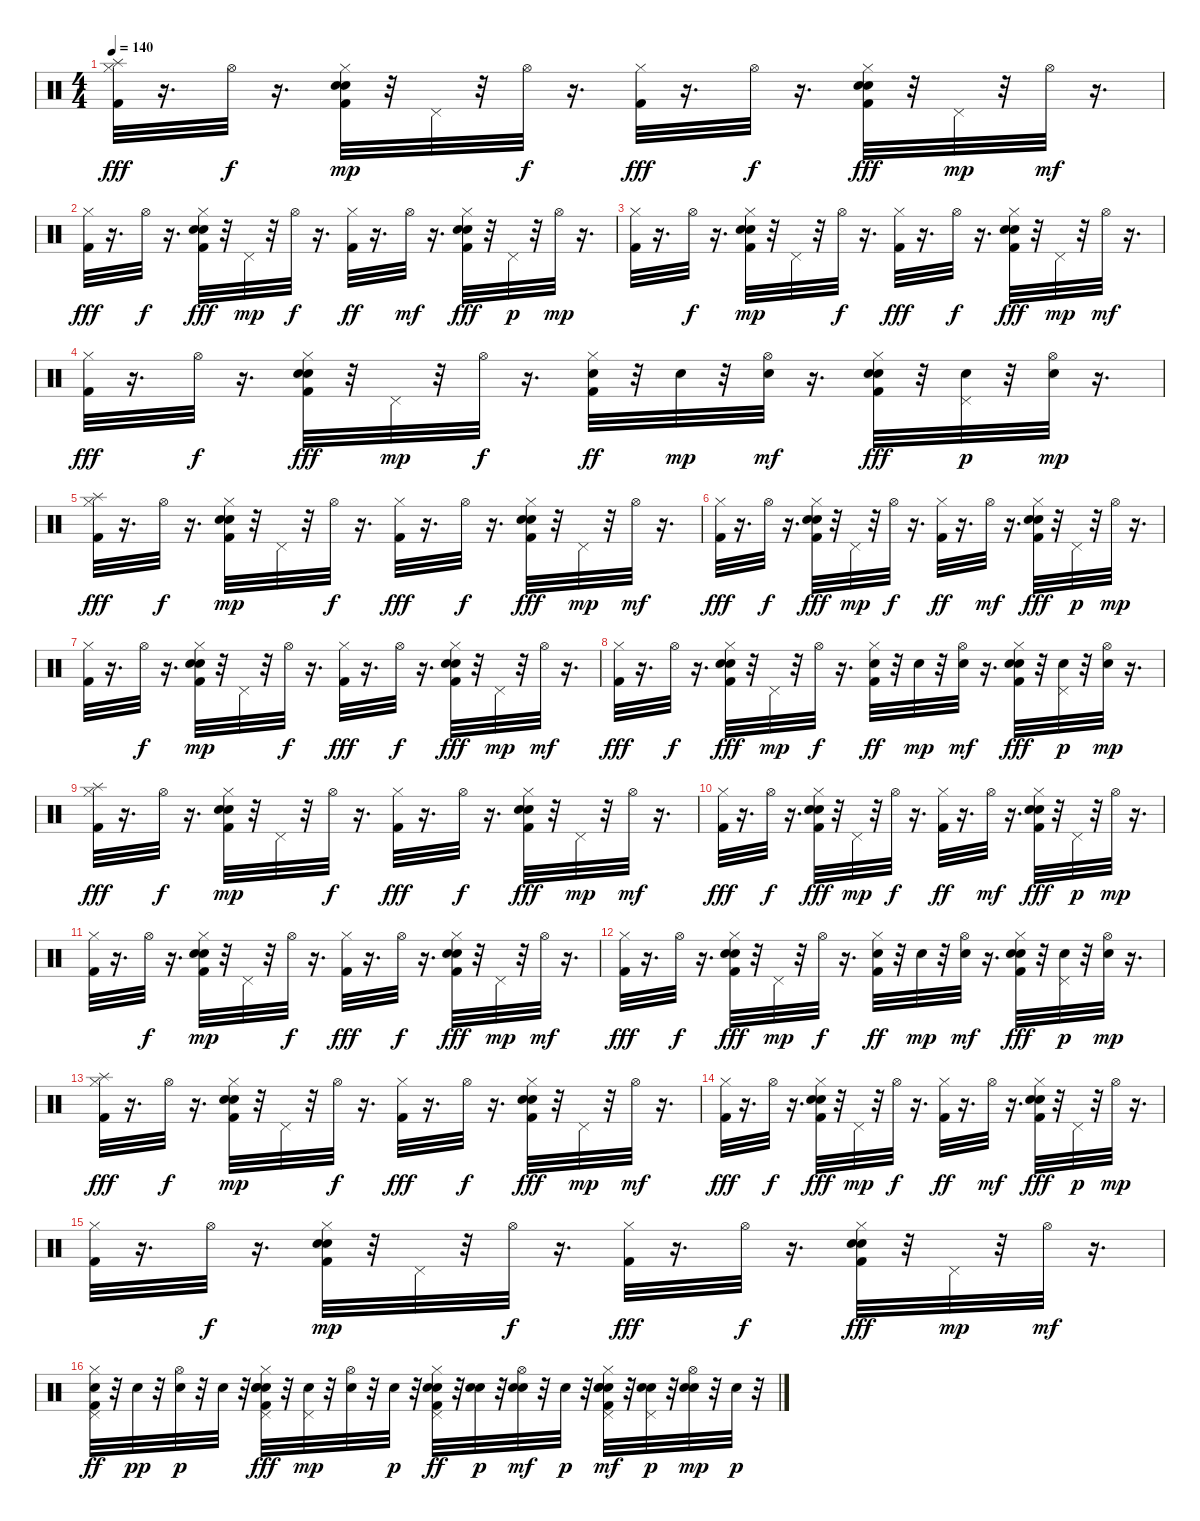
\track "" {instrument percussion}
\staff {score}
\articulation defaults
\ts (4 4)
\tempo 140
\clef neutral
\ks c
("Kick (hit) 2" "Hi-Hat (closed)" "Splash (hit)").32{dy fff} r.16{d} "Hi-Hat (open)".32{dy f} r.16{d} ("Kick (hit) 2" "Snare (hit) 2" "Hand Clap (hit)" "Hi-Hat (closed)").32{dy mp} r.32 "Pedal Hi-Hat (hit)".32 r.32 "Hi-Hat (open)".32{dy f} r.16{d} ("Kick (hit) 2" "Hi-Hat (closed)").32{dy fff} r.16{d} "Hi-Hat (open)".32{dy f} r.16{d} ("Kick (hit) 2" "Snare (hit) 2" "Hand Clap (hit)" "Hi-Hat (closed)").32{dy fff} r.32 "Pedal Hi-Hat (hit)".32{dy mp} r.32 "Hi-Hat (open)".32{dy mf} r.16{d} |
("Kick (hit) 2" "Hi-Hat (closed)").32{dy fff} r.16{d} "Hi-Hat (open)".32{dy f} r.16{d} ("Kick (hit) 2" "Snare (hit) 2" "Hand Clap (hit)" "Hi-Hat (closed)").32{dy fff} r.32 "Pedal Hi-Hat (hit)".32{dy mp} r.32 "Hi-Hat (open)".32{dy f} r.16{d} ("Kick (hit) 2" "Hi-Hat (closed)").32{dy ff} r.16{d} "Hi-Hat (open)".32{dy mf} r.16{d} ("Kick (hit) 2" "Snare (hit) 2" "Hand Clap (hit)" "Hi-Hat (closed)").32{dy fff} r.32 "Pedal Hi-Hat (hit)".32{dy p} r.32 "Hi-Hat (open)".32{dy mp} r.16{d} |
("Kick (hit) 2" "Hi-Hat (closed)").32 r.16{d} "Hi-Hat (open)".32{dy f} r.16{d} ("Kick (hit) 2" "Snare (hit) 2" "Hand Clap (hit)" "Hi-Hat (closed)").32{dy mp} r.32 "Pedal Hi-Hat (hit)".32 r.32 "Hi-Hat (open)".32{dy f} r.16{d} ("Kick (hit) 2" "Hi-Hat (closed)").32{dy fff} r.16{d} "Hi-Hat (open)".32{dy f} r.16{d} ("Kick (hit) 2" "Snare (hit) 2" "Hand Clap (hit)" "Hi-Hat (closed)").32{dy fff} r.32 "Pedal Hi-Hat (hit)".32{dy mp} r.32 "Hi-Hat (open)".32{dy mf} r.16{d} |
("Kick (hit) 2" "Hi-Hat (closed)").32{dy fff} r.16{d} "Hi-Hat (open)".32{dy f} r.16{d} ("Kick (hit) 2" "Snare (hit) 2" "Hand Clap (hit)" "Hi-Hat (closed)").32{dy fff} r.32 "Pedal Hi-Hat (hit)".32{dy mp} r.32 "Hi-Hat (open)".32{dy f} r.16{d} ("Kick (hit) 2" "Snare (hit) 2" "Hi-Hat (closed)").32{dy ff} r.32 "Snare (hit) 2".32{dy mp} r.32 ("Snare (hit) 2" "Hi-Hat (open)").32{dy mf} r.16{d} ("Kick (hit) 2" "Snare (hit) 2" "Hand Clap (hit)" "Hi-Hat (closed)").32{dy fff} r.32 ("Snare (hit) 2" "Pedal Hi-Hat (hit)").32{dy p} r.32 ("Snare (hit) 2" "Hi-Hat (open)").32{dy mp} r.16{d} |
("Kick (hit) 2" "Hi-Hat (closed)" "Splash (hit)").32{dy fff} r.16{d} "Hi-Hat (open)".32{dy f} r.16{d} ("Kick (hit) 2" "Snare (hit) 2" "Hand Clap (hit)" "Hi-Hat (closed)").32{dy mp} r.32 "Pedal Hi-Hat (hit)".32 r.32 "Hi-Hat (open)".32{dy f} r.16{d} ("Kick (hit) 2" "Hi-Hat (closed)").32{dy fff} r.16{d} "Hi-Hat (open)".32{dy f} r.16{d} ("Kick (hit) 2" "Snare (hit) 2" "Hand Clap (hit)" "Hi-Hat (closed)").32{dy fff} r.32 "Pedal Hi-Hat (hit)".32{dy mp} r.32 "Hi-Hat (open)".32{dy mf} r.16{d} |
("Kick (hit) 2" "Hi-Hat (closed)").32{dy fff} r.16{d} "Hi-Hat (open)".32{dy f} r.16{d} ("Kick (hit) 2" "Snare (hit) 2" "Hand Clap (hit)" "Hi-Hat (closed)").32{dy fff} r.32 "Pedal Hi-Hat (hit)".32{dy mp} r.32 "Hi-Hat (open)".32{dy f} r.16{d} ("Kick (hit) 2" "Hi-Hat (closed)").32{dy ff} r.16{d} "Hi-Hat (open)".32{dy mf} r.16{d} ("Kick (hit) 2" "Snare (hit) 2" "Hand Clap (hit)" "Hi-Hat (closed)").32{dy fff} r.32 "Pedal Hi-Hat (hit)".32{dy p} r.32 "Hi-Hat (open)".32{dy mp} r.16{d} |
("Kick (hit) 2" "Hi-Hat (closed)").32 r.16{d} "Hi-Hat (open)".32{dy f} r.16{d} ("Kick (hit) 2" "Snare (hit) 2" "Hand Clap (hit)" "Hi-Hat (closed)").32{dy mp} r.32 "Pedal Hi-Hat (hit)".32 r.32 "Hi-Hat (open)".32{dy f} r.16{d} ("Kick (hit) 2" "Hi-Hat (closed)").32{dy fff} r.16{d} "Hi-Hat (open)".32{dy f} r.16{d} ("Kick (hit) 2" "Snare (hit) 2" "Hand Clap (hit)" "Hi-Hat (closed)").32{dy fff} r.32 "Pedal Hi-Hat (hit)".32{dy mp} r.32 "Hi-Hat (open)".32{dy mf} r.16{d} |
("Kick (hit) 2" "Hi-Hat (closed)").32{dy fff} r.16{d} "Hi-Hat (open)".32{dy f} r.16{d} ("Kick (hit) 2" "Snare (hit) 2" "Hand Clap (hit)" "Hi-Hat (closed)").32{dy fff} r.32 "Pedal Hi-Hat (hit)".32{dy mp} r.32 "Hi-Hat (open)".32{dy f} r.16{d} ("Kick (hit) 2" "Snare (hit) 2" "Hi-Hat (closed)").32{dy ff} r.32 "Snare (hit) 2".32{dy mp} r.32 ("Snare (hit) 2" "Hi-Hat (open)").32{dy mf} r.16{d} ("Kick (hit) 2" "Snare (hit) 2" "Hand Clap (hit)" "Hi-Hat (closed)").32{dy fff} r.32 ("Snare (hit) 2" "Pedal Hi-Hat (hit)").32{dy p} r.32 ("Snare (hit) 2" "Hi-Hat (open)").32{dy mp} r.16{d} |
("Kick (hit) 2" "Hi-Hat (closed)" "Splash (hit)").32{dy fff} r.16{d} "Hi-Hat (open)".32{dy f} r.16{d} ("Kick (hit) 2" "Snare (hit) 2" "Hand Clap (hit)" "Hi-Hat (closed)").32{dy mp} r.32 "Pedal Hi-Hat (hit)".32 r.32 "Hi-Hat (open)".32{dy f} r.16{d} ("Kick (hit) 2" "Hi-Hat (closed)").32{dy fff} r.16{d} "Hi-Hat (open)".32{dy f} r.16{d} ("Kick (hit) 2" "Snare (hit) 2" "Hand Clap (hit)" "Hi-Hat (closed)").32{dy fff} r.32 "Pedal Hi-Hat (hit)".32{dy mp} r.32 "Hi-Hat (open)".32{dy mf} r.16{d} |
("Kick (hit) 2" "Hi-Hat (closed)").32{dy fff} r.16{d} "Hi-Hat (open)".32{dy f} r.16{d} ("Kick (hit) 2" "Snare (hit) 2" "Hand Clap (hit)" "Hi-Hat (closed)").32{dy fff} r.32 "Pedal Hi-Hat (hit)".32{dy mp} r.32 "Hi-Hat (open)".32{dy f} r.16{d} ("Kick (hit) 2" "Hi-Hat (closed)").32{dy ff} r.16{d} "Hi-Hat (open)".32{dy mf} r.16{d} ("Kick (hit) 2" "Snare (hit) 2" "Hand Clap (hit)" "Hi-Hat (closed)").32{dy fff} r.32 "Pedal Hi-Hat (hit)".32{dy p} r.32 "Hi-Hat (open)".32{dy mp} r.16{d} |
("Kick (hit) 2" "Hi-Hat (closed)").32 r.16{d} "Hi-Hat (open)".32{dy f} r.16{d} ("Kick (hit) 2" "Snare (hit) 2" "Hand Clap (hit)" "Hi-Hat (closed)").32{dy mp} r.32 "Pedal Hi-Hat (hit)".32 r.32 "Hi-Hat (open)".32{dy f} r.16{d} ("Kick (hit) 2" "Hi-Hat (closed)").32{dy fff} r.16{d} "Hi-Hat (open)".32{dy f} r.16{d} ("Kick (hit) 2" "Snare (hit) 2" "Hand Clap (hit)" "Hi-Hat (closed)").32{dy fff} r.32 "Pedal Hi-Hat (hit)".32{dy mp} r.32 "Hi-Hat (open)".32{dy mf} r.16{d} |
("Kick (hit) 2" "Hi-Hat (closed)").32{dy fff} r.16{d} "Hi-Hat (open)".32{dy f} r.16{d} ("Kick (hit) 2" "Snare (hit) 2" "Hand Clap (hit)" "Hi-Hat (closed)").32{dy fff} r.32 "Pedal Hi-Hat (hit)".32{dy mp} r.32 "Hi-Hat (open)".32{dy f} r.16{d} ("Kick (hit) 2" "Snare (hit) 2" "Hi-Hat (closed)").32{dy ff} r.32 "Snare (hit) 2".32{dy mp} r.32 ("Snare (hit) 2" "Hi-Hat (open)").32{dy mf} r.16{d} ("Kick (hit) 2" "Snare (hit) 2" "Hand Clap (hit)" "Hi-Hat (closed)").32{dy fff} r.32 ("Snare (hit) 2" "Pedal Hi-Hat (hit)").32{dy p} r.32 ("Snare (hit) 2" "Hi-Hat (open)").32{dy mp} r.16{d} |
("Kick (hit) 2" "Hi-Hat (closed)" "Splash (hit)").32{dy fff} r.16{d} "Hi-Hat (open)".32{dy f} r.16{d} ("Kick (hit) 2" "Snare (hit) 2" "Hand Clap (hit)" "Hi-Hat (closed)").32{dy mp} r.32 "Pedal Hi-Hat (hit)".32 r.32 "Hi-Hat (open)".32{dy f} r.16{d} ("Kick (hit) 2" "Hi-Hat (closed)").32{dy fff} r.16{d} "Hi-Hat (open)".32{dy f} r.16{d} ("Kick (hit) 2" "Snare (hit) 2" "Hand Clap (hit)" "Hi-Hat (closed)").32{dy fff} r.32 "Pedal Hi-Hat (hit)".32{dy mp} r.32 "Hi-Hat (open)".32{dy mf} r.16{d} |
("Kick (hit) 2" "Hi-Hat (closed)").32{dy fff} r.16{d} "Hi-Hat (open)".32{dy f} r.16{d} ("Kick (hit) 2" "Snare (hit) 2" "Hand Clap (hit)" "Hi-Hat (closed)").32{dy fff} r.32 "Pedal Hi-Hat (hit)".32{dy mp} r.32 "Hi-Hat (open)".32{dy f} r.16{d} ("Kick (hit) 2" "Hi-Hat (closed)").32{dy ff} r.16{d} "Hi-Hat (open)".32{dy mf} r.16{d} ("Kick (hit) 2" "Snare (hit) 2" "Hand Clap (hit)" "Hi-Hat (closed)").32{dy fff} r.32 "Pedal Hi-Hat (hit)".32{dy p} r.32 "Hi-Hat (open)".32{dy mp} r.16{d} |
("Kick (hit) 2" "Hi-Hat (closed)").32 r.16{d} "Hi-Hat (open)".32{dy f} r.16{d} ("Kick (hit) 2" "Snare (hit) 2" "Hand Clap (hit)" "Hi-Hat (closed)").32{dy mp} r.32 "Pedal Hi-Hat (hit)".32 r.32 "Hi-Hat (open)".32{dy f} r.16{d} ("Kick (hit) 2" "Hi-Hat (closed)").32{dy fff} r.16{d} "Hi-Hat (open)".32{dy f} r.16{d} ("Kick (hit) 2" "Snare (hit) 2" "Hand Clap (hit)" "Hi-Hat (closed)").32{dy fff} r.32 "Pedal Hi-Hat (hit)".32{dy mp} r.32 "Hi-Hat (open)".32{dy mf} r.16{d} |
("Kick (hit) 2" "Snare (hit) 2" "Hi-Hat (closed)" "Pedal Hi-Hat (hit)").32{dy ff} r.32 "Snare (hit) 2".32{dy pp} r.32 ("Snare (hit) 2" "Hi-Hat (open)").32{dy p} r.32 "Snare (hit) 2".32 r.32 ("Kick (hit) 2" "Snare (hit) 2" "Snare (hit) 2" "Hand Clap (hit)" "Hi-Hat (closed)" "Pedal Hi-Hat (hit)").32{dy fff} r.32 ("Snare (hit) 2" "Pedal Hi-Hat (hit)").32{dy mp} r.32 ("Snare (hit) 2" "Hi-Hat (open)").32 r.32 "Snare (hit) 2".32{dy p} r.32 ("Kick (hit) 2" "Snare (hit) 2" "Snare (hit) 2" "Hi-Hat (closed)" "Pedal Hi-Hat (hit)").32{dy ff} r.32 ("Snare (hit) 2" "Snare (hit) 2").32{dy p} r.32 ("Snare (hit) 2" "Snare (hit) 2" "Hi-Hat (open)").32{dy mf} r.32 "Snare (hit) 2".32{dy p} r.32 ("Kick (hit) 2" "Snare (hit) 2" "Snare (hit) 2" "Hand Clap (hit)" "Hi-Hat (closed)" "Pedal Hi-Hat (hit)").32{dy mf} r.32 ("Snare (hit) 2" "Snare (hit) 2" "Pedal Hi-Hat (hit)").32{dy p} r.32 ("Snare (hit) 2" "Snare (hit) 2" "Hi-Hat (open)").32{dy mp} r.32 "Snare (hit) 2".32{dy p} r.32
